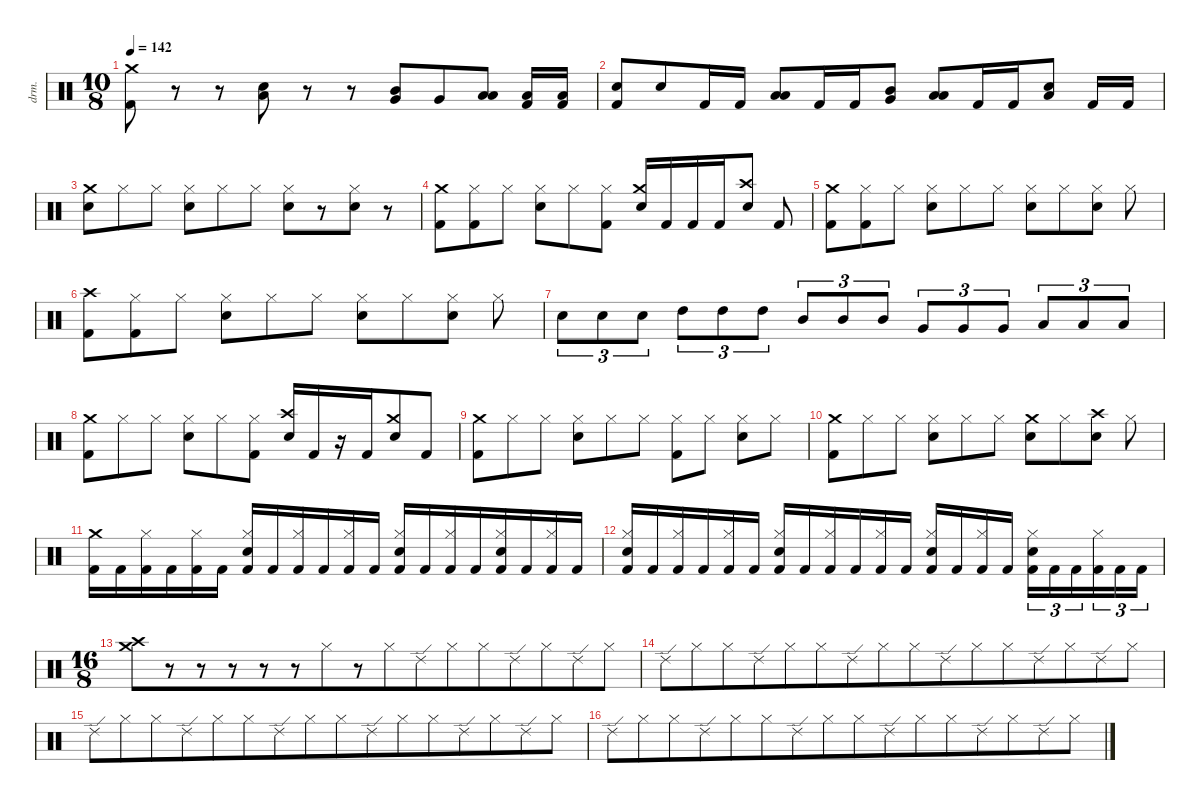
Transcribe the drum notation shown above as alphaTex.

\defaultSystemsLayout 4
\hideDynamics
\bracketExtendMode nobrackets
\otherSystemsTrackNameOrientation horizontal
\track ("Drums" "drm.") {instrument percussion}
\staff {score}
\articulation defaults
\ts (10 8)
\beaming (8 3 3 3 1)
\tempo 142
\clef neutral
\ks c
("Crash medium (hit)" "Kick (hit) 2").8{dy f beam Down} r.8{beam Down} r.8{beam Down} ("Snare (hit) 2" "Low Floor Tom (hit)").8{beam Down} r.8{beam Down} r.8{beam Down} ("Mid Tom (hit)" "Very Low Tom (hit)").8{beam Up} "Very Low Tom (hit)".8{dy p beam Up} ("Low Tom (hit)" "Low Floor Tom (hit)").8{dy f beam Up} ("Low Floor Tom (hit)" "Kick (hit) 2").16{dy p beam Up} ("Low Floor Tom (hit)" "Kick (hit) 2").16{beam Up} |
("Snare (hit) 2" "Kick (hit) 2").8{dy f beam Up} "Snare (hit) 2".8{beam Up} "Kick (hit) 2".16{beam Up} "Kick (hit) 2".16{beam Up} ("Low Tom (hit)" "Low Floor Tom (hit)").8{beam Up} "Kick (hit) 2".16{beam Up} "Kick (hit) 2".16{beam Up} ("Mid Tom (hit)" "Very Low Tom (hit)").8{beam Up} ("Low Tom (hit)" "Low Floor Tom (hit)").8{beam Up} "Kick (hit) 2".16{beam Up} "Kick (hit) 2".16{beam Up} ("Snare (hit) 2" "Low Floor Tom (hit)").8{beam Up} "Kick (hit) 2".16{beam Up} "Kick (hit) 2".16{beam Up} |
("Crash medium (hit)" "Snare (hit) 2").8{beam Down} "Hi-Hat (closed)".8{beam Down} "Hi-Hat (closed)".8{beam Down} ("Hi-Hat (closed)" "Snare (hit) 2").8{beam Down} "Hi-Hat (closed)".8{beam Down} "Hi-Hat (closed)".8{beam Down} ("Hi-Hat (closed)" "Snare (hit) 2").8{beam Down} r.8{beam Down} ("Hi-Hat (closed)" "Snare (hit) 2").8{beam Down} r.8{beam Down} |
("Crash medium (hit)" "Kick (hit) 2").8{beam Down} ("Hi-Hat (closed)" "Kick (hit) 2").8{beam Down} "Hi-Hat (closed)".8{beam Down} ("Hi-Hat (closed)" "Snare (hit) 2").8{beam Down} "Hi-Hat (closed)".8{beam Down} ("Hi-Hat (closed)" "Kick (hit) 2").8{beam Down} ("Crash medium (hit)" "Snare (hit) 2").16{beam Up} "Kick (hit) 2".16{beam Up} "Kick (hit) 2".16{beam Up} "Kick (hit) 2".16{beam Up} ("Crash high (hit)" "Snare (hit) 2").8{beam Up} "Kick (hit) 2".8{beam Up} |
("Crash medium (hit)" "Kick (hit) 2").8{beam Down} ("Hi-Hat (closed)" "Kick (hit) 2").8{beam Down} "Hi-Hat (closed)".8{beam Down} ("Hi-Hat (closed)" "Snare (hit) 2").8{beam Down} "Hi-Hat (closed)".8{beam Down} "Hi-Hat (closed)".8{beam Down} ("Hi-Hat (closed)" "Snare (hit) 2").8{beam Down} "Hi-Hat (closed)".8{beam Down} ("Hi-Hat (closed)" "Snare (hit) 2").8{beam Down} "Hi-Hat (closed)".8{beam Down} |
("Crash high (hit)" "Kick (hit) 2").8{beam Down} ("Hi-Hat (closed)" "Kick (hit) 2").8{beam Down} "Hi-Hat (closed)".8{beam Down} ("Hi-Hat (closed)" "Snare (hit) 2").8{beam Down} "Hi-Hat (closed)".8{beam Down} "Hi-Hat (closed)".8{beam Down} ("Hi-Hat (closed)" "Snare (hit) 2").8{beam Down} "Hi-Hat (closed)".8{beam Down} ("Hi-Hat (closed)" "Snare (hit) 2").8{beam Down} "Hi-Hat (closed)".8{beam Down} |
"Snare (hit) 2".8{tu (3 2) beam Down} "Snare (hit) 2".8{tu (3 2) beam Down beam merge} "Snare (hit) 2".8{tu (3 2) beam Down} "High Tom (hit)".8{tu (3 2) beam Down} "High Tom (hit)".8{tu (3 2) beam Down beam merge} "High Tom (hit)".8{tu (3 2) beam Down} "Mid Tom (hit)".8{tu (3 2) beam Up} "Mid Tom (hit)".8{tu (3 2) beam Up beam merge} "Mid Tom (hit)".8{tu (3 2) beam Up} "Very Low Tom (hit)".8{tu (3 2) beam Up} "Very Low Tom (hit)".8{tu (3 2) beam Up beam merge} "Very Low Tom (hit)".8{tu (3 2) beam Up} "Low Floor Tom (hit)".8{tu (3 2) beam Up} "Low Floor Tom (hit)".8{tu (3 2) beam Up beam merge} "Low Floor Tom (hit)".8{tu (3 2) beam Up} |
("Crash medium (hit)" "Kick (hit) 2").8{beam Down} "Hi-Hat (closed)".8{beam Down} "Hi-Hat (closed)".8{beam Down} ("Hi-Hat (closed)" "Snare (hit) 2").8{beam Down} "Hi-Hat (closed)".8{beam Down} ("Hi-Hat (closed)" "Kick (hit) 2").8{beam Down} ("Crash high (hit)" "Snare (hit) 2").16{beam Up} "Kick (hit) 2".16{beam Up} r.16{beam Up} "Kick (hit) 2".16{beam Up} ("Crash medium (hit)" "Snare (hit) 2").8{beam Up beam merge} "Kick (hit) 2".8{beam Up} |
("Crash medium (hit)" "Kick (hit) 2").8{beam Down} "Hi-Hat (closed)".8{beam Down} "Hi-Hat (closed)".8{beam Down} ("Hi-Hat (closed)" "Snare (hit) 2").8{beam Down} "Hi-Hat (closed)".8{beam Down} "Hi-Hat (closed)".8{beam Down} ("Hi-Hat (closed)" "Kick (hit) 2").8{beam Down} "Hi-Hat (closed)".8{beam Down beam split} ("Hi-Hat (closed)" "Snare (hit) 2").8{beam Down beam merge} "Hi-Hat (closed)".8{beam Down} |
("Crash medium (hit)" "Kick (hit) 2").8{beam Down} "Hi-Hat (closed)".8{beam Down} "Hi-Hat (closed)".8{beam Down} ("Hi-Hat (closed)" "Snare (hit) 2").8{beam Down} "Hi-Hat (closed)".8{beam Down} "Hi-Hat (closed)".8{beam Down} ("Crash medium (hit)" "Snare (hit) 2").8{beam Down} "Hi-Hat (closed)".8{beam Down} ("Crash high (hit)" "Snare (hit) 2").8{beam Down} "Hi-Hat (closed)".8{beam Down} |
("Crash medium (hit)" "Kick (hit) 2").16{beam Down} "Kick (hit) 2".16{beam Down beam merge} ("Hi-Hat (closed)" "Kick (hit) 2").16{beam Down} "Kick (hit) 2".16{beam Down beam merge} ("Hi-Hat (closed)" "Kick (hit) 2").16{beam Down} "Kick (hit) 2".16{beam Down} ("Hi-Hat (closed)" "Snare (hit) 2" "Kick (hit) 2").16{beam Up} "Kick (hit) 2".16{beam Up beam merge} ("Hi-Hat (closed)" "Kick (hit) 2").16{beam Up} "Kick (hit) 2".16{beam Up beam merge} ("Hi-Hat (closed)" "Kick (hit) 2").16{beam Up} "Kick (hit) 2".16{beam Up} ("Hi-Hat (closed)" "Snare (hit) 2" "Kick (hit) 2").16{beam Up} "Kick (hit) 2".16{beam Up beam merge} ("Hi-Hat (closed)" "Kick (hit) 2").16{beam Up} "Kick (hit) 2".16{beam Up} ("Hi-Hat (closed)" "Snare (hit) 2" "Kick (hit) 2").16{beam Up} "Kick (hit) 2".16{beam Up beam merge} ("Hi-Hat (closed)" "Kick (hit) 2").16{beam Up} "Kick (hit) 2".16{beam Up} |
("Hi-Hat (closed)" "Snare (hit) 2" "Kick (hit) 2").16{beam Up} "Kick (hit) 2".16{beam Up beam merge} ("Hi-Hat (closed)" "Kick (hit) 2").16{beam Up} "Kick (hit) 2".16{beam Up beam merge} ("Hi-Hat (closed)" "Kick (hit) 2").16{beam Up} "Kick (hit) 2".16{beam Up} ("Hi-Hat (closed)" "Snare (hit) 2" "Kick (hit) 2").16{beam Up} "Kick (hit) 2".16{beam Up beam merge} ("Hi-Hat (closed)" "Kick (hit) 2").16{beam Up} "Kick (hit) 2".16{beam Up beam merge} ("Hi-Hat (closed)" "Kick (hit) 2").16{beam Up} "Kick (hit) 2".16{beam Up} ("Hi-Hat (closed)" "Snare (hit) 2" "Kick (hit) 2").16{beam Up} "Kick (hit) 2".16{beam Up beam merge} ("Hi-Hat (closed)" "Kick (hit) 2").16{beam Up} "Kick (hit) 2".16{beam Up} ("Hi-Hat (closed)" "Snare (hit) 2" "Kick (hit) 2").16{tu (3 2) beam Down} "Kick (hit) 2".16{tu (3 2) beam Down} "Kick (hit) 2".16{tu (3 2) beam Down beam merge} ("Hi-Hat (closed)" "Kick (hit) 2").16{tu (3 2) beam Down} "Kick (hit) 2".16{tu (3 2) beam Down} "Kick (hit) 2".16{tu (3 2) beam Down} |
\ts (16 8)
\beaming (8 16)
("Crash medium (hit)" "Crash high (hit)").8{beam Down} r.8{beam Down} r.8{beam Down} r.8{beam Down} r.8{beam Down} r.8{beam Down} "Hi-Hat (closed)".8{beam Down} r.8{beam Down} "Hi-Hat (closed)".8{beam Down} "Ride (edge) 2".8{dy mp beam Down beam merge} "Hi-Hat (closed)".8{dy f beam Down beam merge} "Hi-Hat (closed)".8{beam Down} "Ride (edge) 2".8{dy mp beam Down beam merge} "Hi-Hat (closed)".8{dy f beam Down} "Ride (edge) 2".8{dy mp beam Down beam merge} "Hi-Hat (closed)".8{dy f beam Down} |
"Ride (edge) 2".8{dy mp beam Down beam merge} "Hi-Hat (closed)".8{dy f beam Down beam merge} "Hi-Hat (closed)".8{beam Down} "Ride (edge) 2".8{dy mp beam Down beam merge} "Hi-Hat (closed)".8{dy f beam Down beam merge} "Hi-Hat (closed)".8{beam Down} "Ride (edge) 2".8{dy mp beam Down beam merge} "Hi-Hat (closed)".8{dy f beam Down beam merge} "Hi-Hat (closed)".8{beam Down} "Ride (edge) 2".8{dy mp beam Down beam merge} "Hi-Hat (closed)".8{dy f beam Down beam merge} "Hi-Hat (closed)".8{beam Down} "Ride (edge) 2".8{dy mp beam Down beam merge} "Hi-Hat (closed)".8{dy f beam Down} "Ride (edge) 2".8{dy mp beam Down beam merge} "Hi-Hat (closed)".8{dy f beam Down} |
"Ride (edge) 2".8{dy mp beam Down beam merge} "Hi-Hat (closed)".8{dy f beam Down beam merge} "Hi-Hat (closed)".8{beam Down} "Ride (edge) 2".8{dy mp beam Down beam merge} "Hi-Hat (closed)".8{dy f beam Down beam merge} "Hi-Hat (closed)".8{beam Down} "Ride (edge) 2".8{dy mp beam Down beam merge} "Hi-Hat (closed)".8{dy f beam Down beam merge} "Hi-Hat (closed)".8{beam Down} "Ride (edge) 2".8{dy mp beam Down beam merge} "Hi-Hat (closed)".8{dy f beam Down beam merge} "Hi-Hat (closed)".8{beam Down} "Ride (edge) 2".8{dy mp beam Down beam merge} "Hi-Hat (closed)".8{dy f beam Down} "Ride (edge) 2".8{dy mp beam Down beam merge} "Hi-Hat (closed)".8{dy f beam Down} |
"Ride (edge) 2".8{dy mp beam Down beam merge} "Hi-Hat (closed)".8{dy f beam Down beam merge} "Hi-Hat (closed)".8{beam Down} "Ride (edge) 2".8{dy mp beam Down beam merge} "Hi-Hat (closed)".8{dy f beam Down beam merge} "Hi-Hat (closed)".8{beam Down} "Ride (edge) 2".8{dy mp beam Down beam merge} "Hi-Hat (closed)".8{dy f beam Down beam merge} "Hi-Hat (closed)".8{beam Down} "Ride (edge) 2".8{dy mp beam Down beam merge} "Hi-Hat (closed)".8{dy f beam Down beam merge} "Hi-Hat (closed)".8{beam Down} "Ride (edge) 2".8{dy mp beam Down beam merge} "Hi-Hat (closed)".8{dy f beam Down} "Ride (edge) 2".8{dy mp beam Down beam merge} "Hi-Hat (closed)".8{dy f beam Down}
